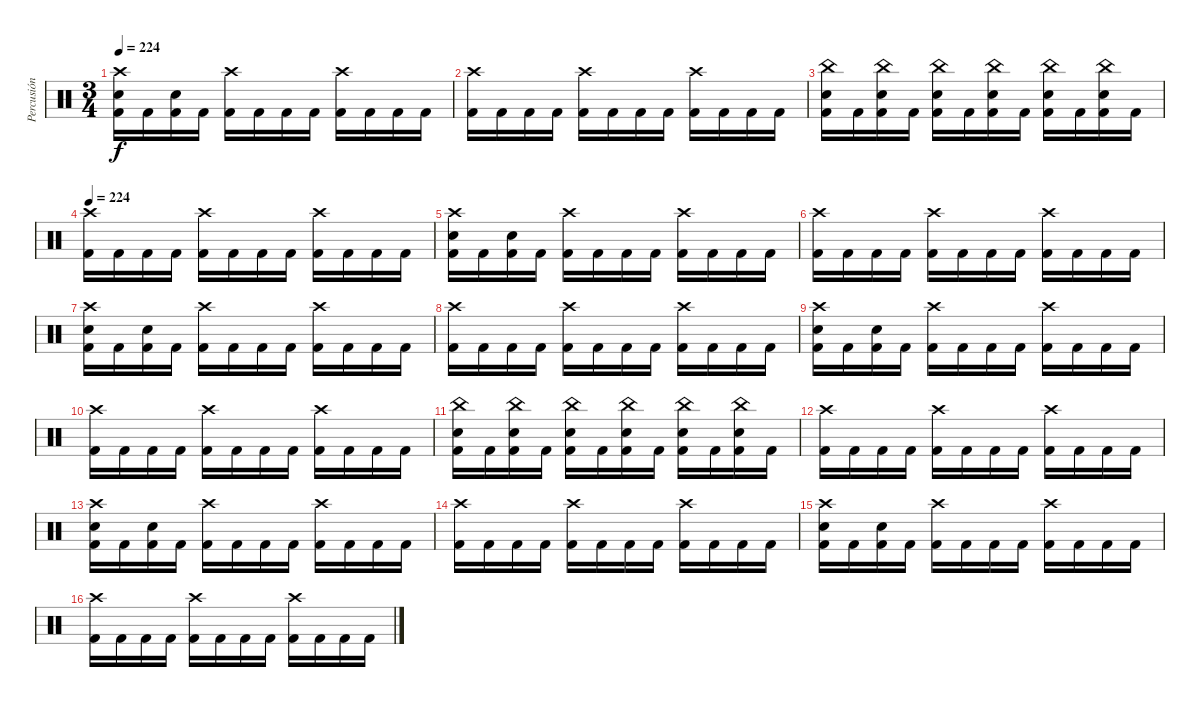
\track ("Percusión" "Percusión") {instrument percussion}
\staff {score}
\articulation defaults
\ts (3 4)
\tempo 224
\clef neutral
\ks c
("Crash high (hit)" "Electric Snare (hit)" "Kick (hit) 2").16{dy f} "Kick (hit) 2".16 ("Electric Snare (hit)" "Kick (hit) 2").16 "Kick (hit) 2".16 ("Crash high (hit)" "Kick (hit) 2").16 "Kick (hit) 2".16 "Kick (hit) 2".16 "Kick (hit) 2".16 ("Crash high (hit)" "Kick (hit) 2").16 "Kick (hit) 2".16 "Kick (hit) 2".16 "Kick (hit) 2".16 |
("Crash high (hit)" "Kick (hit) 2").16 "Kick (hit) 2".16 "Kick (hit) 2".16 "Kick (hit) 2".16 ("Crash high (hit)" "Kick (hit) 2").16 "Kick (hit) 2".16 "Kick (hit) 2".16 "Kick (hit) 2".16 ("Crash high (hit)" "Kick (hit) 2").16 "Kick (hit) 2".16 "Kick (hit) 2".16 "Kick (hit) 2".16 |
("China (hit)" "Electric Snare (hit)" "Kick (hit) 2").16 "Kick (hit) 2".16 ("China (hit)" "Electric Snare (hit)" "Kick (hit) 2").16 "Kick (hit) 2".16 ("China (hit)" "Electric Snare (hit)" "Kick (hit) 2").16 "Kick (hit) 2".16 ("China (hit)" "Electric Snare (hit)" "Kick (hit) 2").16 "Kick (hit) 2".16 ("China (hit)" "Electric Snare (hit)" "Kick (hit) 2").16 "Kick (hit) 2".16 ("China (hit)" "Electric Snare (hit)" "Kick (hit) 2").16 "Kick (hit) 2".16 |
\tempo 224
("Crash high (hit)" "Kick (hit) 2").16 "Kick (hit) 2".16 "Kick (hit) 2".16 "Kick (hit) 2".16 ("Crash high (hit)" "Kick (hit) 2").16 "Kick (hit) 2".16 "Kick (hit) 2".16 "Kick (hit) 2".16 ("Crash high (hit)" "Kick (hit) 2").16 "Kick (hit) 2".16 "Kick (hit) 2".16 "Kick (hit) 2".16 |
("Crash high (hit)" "Electric Snare (hit)" "Kick (hit) 2").16 "Kick (hit) 2".16 ("Electric Snare (hit)" "Kick (hit) 2").16 "Kick (hit) 2".16 ("Crash high (hit)" "Kick (hit) 2").16 "Kick (hit) 2".16 "Kick (hit) 2".16 "Kick (hit) 2".16 ("Crash high (hit)" "Kick (hit) 2").16 "Kick (hit) 2".16 "Kick (hit) 2".16 "Kick (hit) 2".16 |
("Crash high (hit)" "Kick (hit) 2").16 "Kick (hit) 2".16 "Kick (hit) 2".16 "Kick (hit) 2".16 ("Crash high (hit)" "Kick (hit) 2").16 "Kick (hit) 2".16 "Kick (hit) 2".16 "Kick (hit) 2".16 ("Crash high (hit)" "Kick (hit) 2").16 "Kick (hit) 2".16 "Kick (hit) 2".16 "Kick (hit) 2".16 |
("Crash high (hit)" "Electric Snare (hit)" "Kick (hit) 2").16 "Kick (hit) 2".16 ("Electric Snare (hit)" "Kick (hit) 2").16 "Kick (hit) 2".16 ("Crash high (hit)" "Kick (hit) 2").16 "Kick (hit) 2".16 "Kick (hit) 2".16 "Kick (hit) 2".16 ("Crash high (hit)" "Kick (hit) 2").16 "Kick (hit) 2".16 "Kick (hit) 2".16 "Kick (hit) 2".16 |
("Crash high (hit)" "Kick (hit) 2").16 "Kick (hit) 2".16 "Kick (hit) 2".16 "Kick (hit) 2".16 ("Crash high (hit)" "Kick (hit) 2").16 "Kick (hit) 2".16 "Kick (hit) 2".16 "Kick (hit) 2".16 ("Crash high (hit)" "Kick (hit) 2").16 "Kick (hit) 2".16 "Kick (hit) 2".16 "Kick (hit) 2".16 |
("Crash high (hit)" "Electric Snare (hit)" "Kick (hit) 2").16 "Kick (hit) 2".16 ("Electric Snare (hit)" "Kick (hit) 2").16 "Kick (hit) 2".16 ("Crash high (hit)" "Kick (hit) 2").16 "Kick (hit) 2".16 "Kick (hit) 2".16 "Kick (hit) 2".16 ("Crash high (hit)" "Kick (hit) 2").16 "Kick (hit) 2".16 "Kick (hit) 2".16 "Kick (hit) 2".16 |
("Crash high (hit)" "Kick (hit) 2").16 "Kick (hit) 2".16 "Kick (hit) 2".16 "Kick (hit) 2".16 ("Crash high (hit)" "Kick (hit) 2").16 "Kick (hit) 2".16 "Kick (hit) 2".16 "Kick (hit) 2".16 ("Crash high (hit)" "Kick (hit) 2").16 "Kick (hit) 2".16 "Kick (hit) 2".16 "Kick (hit) 2".16 |
("China (hit)" "Electric Snare (hit)" "Kick (hit) 2").16 "Kick (hit) 2".16 ("China (hit)" "Electric Snare (hit)" "Kick (hit) 2").16 "Kick (hit) 2".16 ("China (hit)" "Electric Snare (hit)" "Kick (hit) 2").16 "Kick (hit) 2".16 ("China (hit)" "Electric Snare (hit)" "Kick (hit) 2").16 "Kick (hit) 2".16 ("China (hit)" "Electric Snare (hit)" "Kick (hit) 2").16 "Kick (hit) 2".16 ("China (hit)" "Electric Snare (hit)" "Kick (hit) 2").16 "Kick (hit) 2".16 |
("Crash high (hit)" "Kick (hit) 2").16 "Kick (hit) 2".16 "Kick (hit) 2".16 "Kick (hit) 2".16 ("Crash high (hit)" "Kick (hit) 2").16 "Kick (hit) 2".16 "Kick (hit) 2".16 "Kick (hit) 2".16 ("Crash high (hit)" "Kick (hit) 2").16 "Kick (hit) 2".16 "Kick (hit) 2".16 "Kick (hit) 2".16 |
("Crash high (hit)" "Electric Snare (hit)" "Kick (hit) 2").16 "Kick (hit) 2".16 ("Electric Snare (hit)" "Kick (hit) 2").16 "Kick (hit) 2".16 ("Crash high (hit)" "Kick (hit) 2").16 "Kick (hit) 2".16 "Kick (hit) 2".16 "Kick (hit) 2".16 ("Crash high (hit)" "Kick (hit) 2").16 "Kick (hit) 2".16 "Kick (hit) 2".16 "Kick (hit) 2".16 |
("Crash high (hit)" "Kick (hit) 2").16 "Kick (hit) 2".16 "Kick (hit) 2".16 "Kick (hit) 2".16 ("Crash high (hit)" "Kick (hit) 2").16 "Kick (hit) 2".16 "Kick (hit) 2".16 "Kick (hit) 2".16 ("Crash high (hit)" "Kick (hit) 2").16 "Kick (hit) 2".16 "Kick (hit) 2".16 "Kick (hit) 2".16 |
("Crash high (hit)" "Electric Snare (hit)" "Kick (hit) 2").16 "Kick (hit) 2".16 ("Electric Snare (hit)" "Kick (hit) 2").16 "Kick (hit) 2".16 ("Crash high (hit)" "Kick (hit) 2").16 "Kick (hit) 2".16 "Kick (hit) 2".16 "Kick (hit) 2".16 ("Crash high (hit)" "Kick (hit) 2").16 "Kick (hit) 2".16 "Kick (hit) 2".16 "Kick (hit) 2".16 |
("Crash high (hit)" "Kick (hit) 2").16 "Kick (hit) 2".16 "Kick (hit) 2".16 "Kick (hit) 2".16 ("Crash high (hit)" "Kick (hit) 2").16 "Kick (hit) 2".16 "Kick (hit) 2".16 "Kick (hit) 2".16 ("Crash high (hit)" "Kick (hit) 2").16 "Kick (hit) 2".16 "Kick (hit) 2".16 "Kick (hit) 2".16
